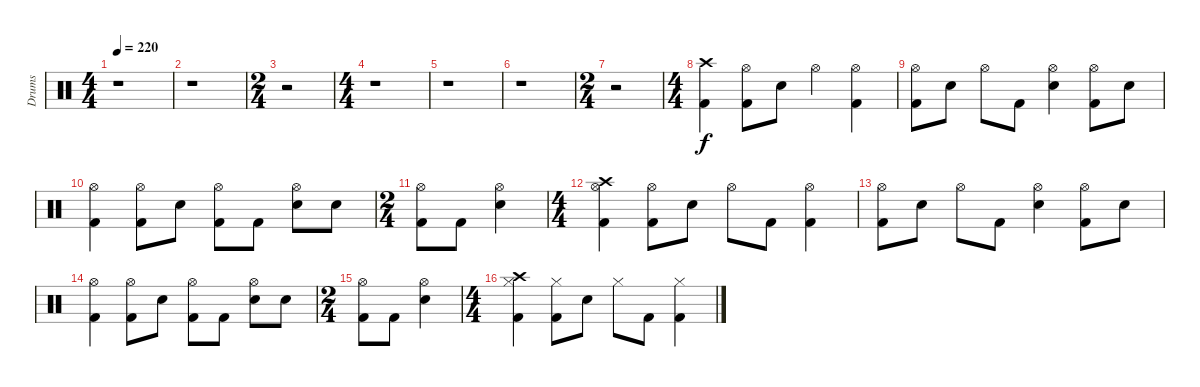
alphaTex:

\track ("Drums" "Drums") {instrument percussion}
\staff {score}
\articulation defaults
\ts (4 4)
\tempo 220
\clef neutral
\ks c
r.1{dy f} |
r.1 |
\ts (2 4)
r.2 |
\ts (4 4)
r.1 |
r.1 |
r.1 |
\ts (2 4)
r.2 |
\ts (4 4)
("Crash high (hit)" "Kick (hit) 2").4 ("Hi-Hat (open)" "Kick (hit) 2").8 "Electric Snare (hit)".8 "Hi-Hat (open)".4 ("Hi-Hat (open)" "Kick (hit) 2").4 |
("Hi-Hat (open)" "Kick (hit) 2").8 "Electric Snare (hit)".8 "Hi-Hat (open)".8 "Kick (hit) 2".8 ("Hi-Hat (open)" "Electric Snare (hit)").4 ("Hi-Hat (open)" "Kick (hit) 2").8 "Electric Snare (hit)".8 |
("Hi-Hat (open)" "Kick (hit) 2").4 ("Hi-Hat (open)" "Kick (hit) 2").8 "Electric Snare (hit)".8 ("Hi-Hat (open)" "Kick (hit) 2").8 "Kick (hit) 2".8 ("Hi-Hat (open)" "Electric Snare (hit)").8 "Electric Snare (hit)".8 |
\ts (2 4)
("Hi-Hat (open)" "Kick (hit) 2").8 "Kick (hit) 2".8 ("Hi-Hat (open)" "Electric Snare (hit)").4 |
\ts (4 4)
("Crash high (hit)" "Hi-Hat (open)" "Kick (hit) 2").4 ("Hi-Hat (open)" "Kick (hit) 2").8 "Electric Snare (hit)".8 "Hi-Hat (open)".8 "Kick (hit) 2".8 ("Hi-Hat (open)" "Kick (hit) 2").4 |
("Hi-Hat (open)" "Kick (hit) 2").8 "Electric Snare (hit)".8 "Hi-Hat (open)".8 "Kick (hit) 2".8 ("Hi-Hat (open)" "Electric Snare (hit)").4 ("Hi-Hat (open)" "Kick (hit) 2").8 "Electric Snare (hit)".8 |
("Hi-Hat (open)" "Kick (hit) 2").4 ("Hi-Hat (open)" "Kick (hit) 2").8 "Electric Snare (hit)".8 ("Hi-Hat (open)" "Kick (hit) 2").8 "Kick (hit) 2".8 ("Hi-Hat (open)" "Electric Snare (hit)").8 "Electric Snare (hit)".8 |
\ts (2 4)
("Hi-Hat (open)" "Kick (hit) 2").8 "Kick (hit) 2".8 ("Hi-Hat (open)" "Electric Snare (hit)").4 |
\ts (4 4)
("Crash high (hit)" "Hi-Hat (closed)" "Kick (hit) 2").4 ("Hi-Hat (closed)" "Kick (hit) 2").8 "Electric Snare (hit)".8 "Hi-Hat (closed)".8 "Kick (hit) 2".8 ("Hi-Hat (closed)" "Kick (hit) 2").4
